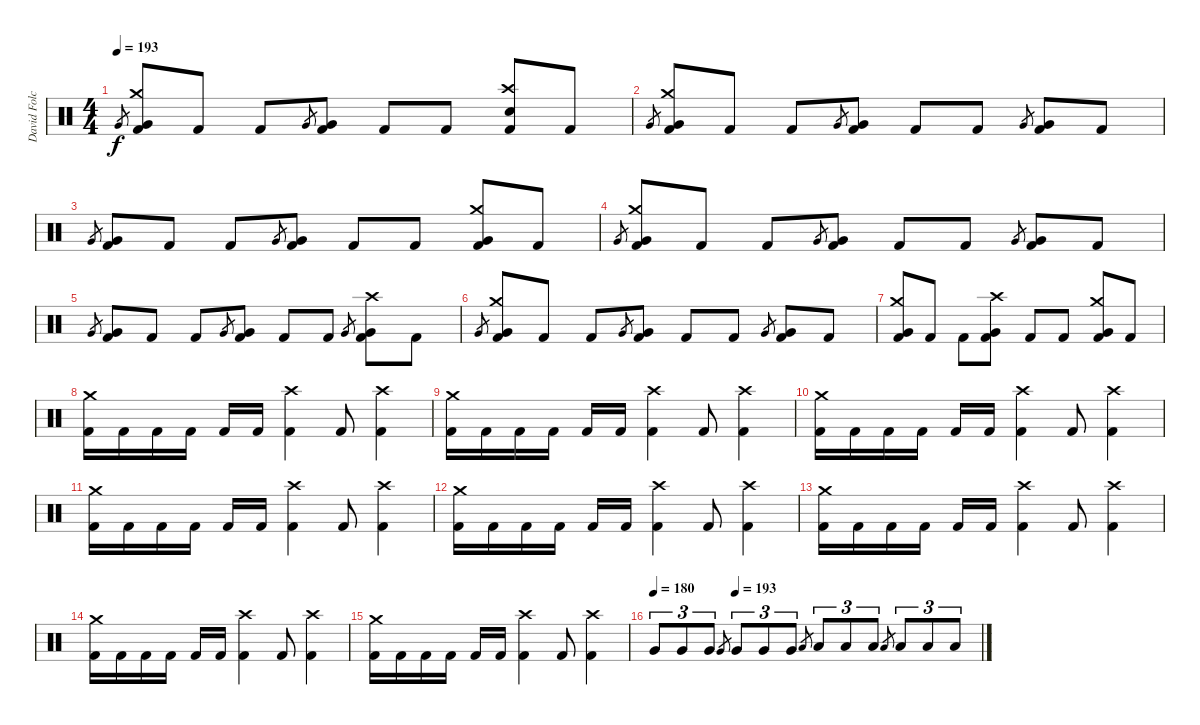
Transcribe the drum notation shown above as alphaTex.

\track ("David Folchitto" "David Folc") {instrument percussion}
\staff {score}
\articulation defaults
\ts (4 4)
\tempo 193
\clef neutral
\ks c "Very Low Tom (hit)".8{gr dy f}
("Crash medium (hit)" "Very Low Tom (hit)" "Kick (hit) 2").8 "Kick (hit) 2".8 "Kick (hit) 2".8 "Very Low Tom (hit)".8{gr} ("Very Low Tom (hit)" "Kick (hit) 2").8 "Kick (hit) 2".8 "Kick (hit) 2".8 ("Crash high (hit)" "Snare (hit) 2" "Kick (hit) 2").8 "Kick (hit) 2".8 |
"Very Low Tom (hit)".8{gr} ("Crash medium (hit)" "Very Low Tom (hit)" "Kick (hit) 2").8 "Kick (hit) 2".8 "Kick (hit) 2".8 "Very Low Tom (hit)".8{gr} ("Very Low Tom (hit)" "Kick (hit) 2").8 "Kick (hit) 2".8 "Kick (hit) 2".8 "Very Low Tom (hit)".8{gr} ("Very Low Tom (hit)" "Kick (hit) 2").8 "Kick (hit) 2".8 |
"Very Low Tom (hit)".8{gr} ("Very Low Tom (hit)" "Kick (hit) 2").8 "Kick (hit) 2".8 "Kick (hit) 2".8 "Very Low Tom (hit)".8{gr} ("Very Low Tom (hit)" "Kick (hit) 2").8 "Kick (hit) 2".8 "Kick (hit) 2".8 ("Crash medium (hit)" "Very Low Tom (hit)" "Kick (hit) 2").8 "Kick (hit) 2".8 |
"Very Low Tom (hit)".8{gr} ("Crash medium (hit)" "Very Low Tom (hit)" "Kick (hit) 2").8 "Kick (hit) 2".8 "Kick (hit) 2".8 "Very Low Tom (hit)".8{gr} ("Very Low Tom (hit)" "Kick (hit) 2").8 "Kick (hit) 2".8 "Kick (hit) 2".8 "Very Low Tom (hit)".8{gr} ("Very Low Tom (hit)" "Kick (hit) 2").8 "Kick (hit) 2".8 |
"Very Low Tom (hit)".8{gr} ("Very Low Tom (hit)" "Kick (hit) 2").8 "Kick (hit) 2".8 "Kick (hit) 2".8 "Very Low Tom (hit)".8{gr} ("Very Low Tom (hit)" "Kick (hit) 2").8 "Kick (hit) 2".8 "Kick (hit) 2".8 "Very Low Tom (hit)".8{gr} ("Crash high (hit)" "Very Low Tom (hit)" "Kick (hit) 2").8 "Kick (hit) 2".8 |
"Very Low Tom (hit)".8{gr} ("Crash medium (hit)" "Very Low Tom (hit)" "Kick (hit) 2").8 "Kick (hit) 2".8 "Kick (hit) 2".8 "Very Low Tom (hit)".8{gr} ("Very Low Tom (hit)" "Kick (hit) 2").8 "Kick (hit) 2".8 "Kick (hit) 2".8 "Very Low Tom (hit)".8{gr} ("Very Low Tom (hit)" "Kick (hit) 2").8 "Kick (hit) 2".8 |
("Crash medium (hit)" "Very Low Tom (hit)" "Kick (hit) 2").8 "Kick (hit) 2".8 "Kick (hit) 2".8 ("Crash high (hit)" "Very Low Tom (hit)" "Kick (hit) 2").8 "Kick (hit) 2".8 "Kick (hit) 2".8 ("Crash medium (hit)" "Very Low Tom (hit)" "Kick (hit) 2").8 "Kick (hit) 2".8 |
("Crash medium (hit)" "Kick (hit) 2").16 "Kick (hit) 2".16 "Kick (hit) 2".16 "Kick (hit) 2".16 "Kick (hit) 2".16 "Kick (hit) 2".16 ("Crash high (hit)" "Kick (hit) 2").4 "Kick (hit) 2".8 ("Crash high (hit)" "Kick (hit) 2").4 |
("Crash medium (hit)" "Kick (hit) 2").16 "Kick (hit) 2".16 "Kick (hit) 2".16 "Kick (hit) 2".16 "Kick (hit) 2".16 "Kick (hit) 2".16 ("Crash high (hit)" "Kick (hit) 2").4 "Kick (hit) 2".8 ("Crash high (hit)" "Kick (hit) 2").4 |
("Crash medium (hit)" "Kick (hit) 2").16 "Kick (hit) 2".16 "Kick (hit) 2".16 "Kick (hit) 2".16 "Kick (hit) 2".16 "Kick (hit) 2".16 ("Crash high (hit)" "Kick (hit) 2").4 "Kick (hit) 2".8 ("Crash high (hit)" "Kick (hit) 2").4 |
("Crash medium (hit)" "Kick (hit) 2").16 "Kick (hit) 2".16 "Kick (hit) 2".16 "Kick (hit) 2".16 "Kick (hit) 2".16 "Kick (hit) 2".16 ("Crash high (hit)" "Kick (hit) 2").4 "Kick (hit) 2".8 ("Crash high (hit)" "Kick (hit) 2").4 |
("Crash medium (hit)" "Kick (hit) 2").16 "Kick (hit) 2".16 "Kick (hit) 2".16 "Kick (hit) 2".16 "Kick (hit) 2".16 "Kick (hit) 2".16 ("Crash high (hit)" "Kick (hit) 2").4 "Kick (hit) 2".8 ("Crash high (hit)" "Kick (hit) 2").4 |
("Crash medium (hit)" "Kick (hit) 2").16 "Kick (hit) 2".16 "Kick (hit) 2".16 "Kick (hit) 2".16 "Kick (hit) 2".16 "Kick (hit) 2".16 ("Crash high (hit)" "Kick (hit) 2").4 "Kick (hit) 2".8 ("Crash high (hit)" "Kick (hit) 2").4 |
("Crash medium (hit)" "Kick (hit) 2").16 "Kick (hit) 2".16 "Kick (hit) 2".16 "Kick (hit) 2".16 "Kick (hit) 2".16 "Kick (hit) 2".16 ("Crash high (hit)" "Kick (hit) 2").4 "Kick (hit) 2".8 ("Crash high (hit)" "Kick (hit) 2").4 |
("Crash medium (hit)" "Kick (hit) 2").16 "Kick (hit) 2".16 "Kick (hit) 2".16 "Kick (hit) 2".16 "Kick (hit) 2".16 "Kick (hit) 2".16 ("Crash high (hit)" "Kick (hit) 2").4 "Kick (hit) 2".8 ("Crash high (hit)" "Kick (hit) 2").4 |
\tempo 180
\tempo (193 0.25)
"Very Low Tom (hit)".8{tu (3 2)} "Very Low Tom (hit)".8{tu (3 2)} "Very Low Tom (hit)".8{tu (3 2)} "Very Low Tom (hit)".8{gr} "Very Low Tom (hit)".8{tu (3 2)} "Very Low Tom (hit)".8{tu (3 2)} "Very Low Tom (hit)".8{tu (3 2)} "Low Floor Tom (hit)".8{gr} "Low Floor Tom (hit)".8{tu (3 2)} "Low Floor Tom (hit)".8{tu (3 2)} "Low Floor Tom (hit)".8{tu (3 2)} "Low Floor Tom (hit)".8{gr} "Low Floor Tom (hit)".8{tu (3 2)} "Low Floor Tom (hit)".8{tu (3 2)} "Low Floor Tom (hit)".8{tu (3 2)}
